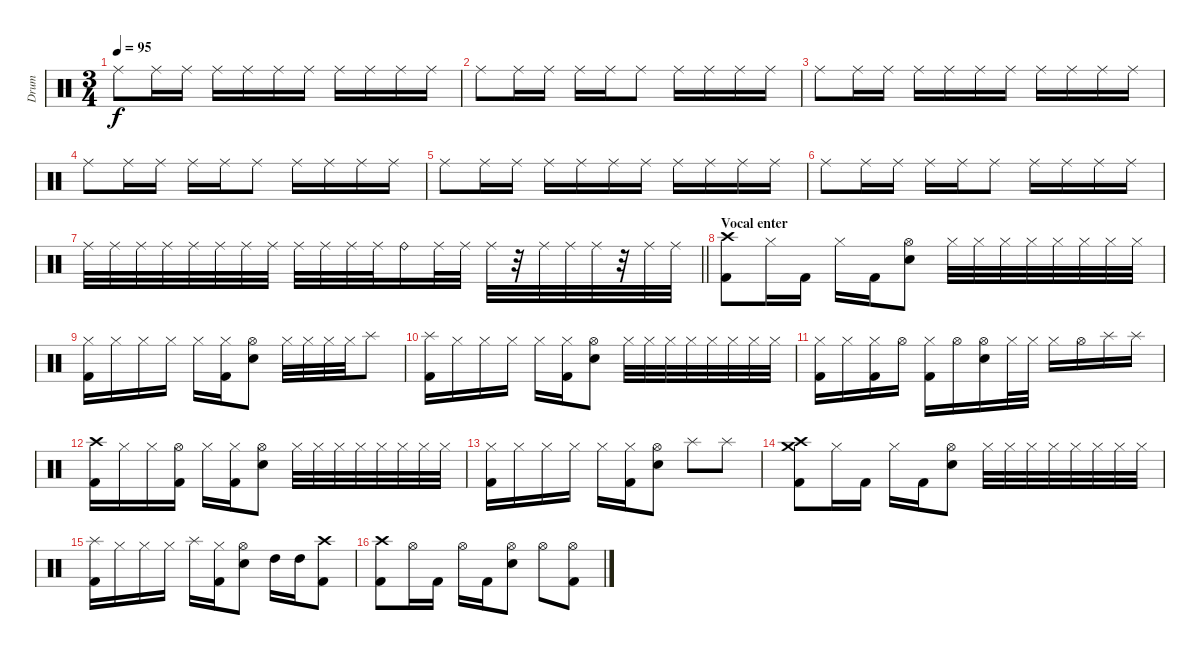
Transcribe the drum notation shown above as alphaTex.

\track ("Drum" "Drum") {instrument percussion}
\staff {score}
\articulation defaults
\ts (3 4)
\tempo 95
\clef neutral
\ks c "Ride (middle)".8{dy f} "Ride (middle)".16 "Ride (middle)".16 "Ride (middle)".16 "Ride (middle)".16 "Ride (middle)".16 "Ride (middle)".16 "Ride (middle)".16 "Ride (middle)".16 "Ride (middle)".16 "Ride (middle)".16
|
"Ride (middle)".8 "Ride (middle)".16 "Ride (middle)".16 "Ride (middle)".16 "Ride (middle)".16 "Ride (middle)".8 "Ride (middle)".16 "Ride (middle)".16 "Ride (middle)".16 "Ride (middle)".16 |
"Ride (middle)".8 "Ride (middle)".16 "Ride (middle)".16 "Ride (middle)".16 "Ride (middle)".16 "Ride (middle)".16 "Ride (middle)".16 "Ride (middle)".16 "Ride (middle)".16 "Ride (middle)".16 "Ride (middle)".16 |
"Ride (middle)".8 "Ride (middle)".16 "Ride (middle)".16 "Ride (middle)".16 "Ride (middle)".16 "Ride (middle)".8 "Ride (middle)".16 "Ride (middle)".16 "Ride (middle)".16 "Ride (middle)".16 |
"Ride (middle)".8 "Ride (middle)".16 "Ride (middle)".16 "Ride (middle)".16 "Ride (middle)".16 "Ride (middle)".16 "Ride (middle)".16 "Ride (middle)".16 "Ride (middle)".16 "Ride (middle)".16 "Ride (middle)".16 |
"Ride (middle)".8 "Ride (middle)".16 "Ride (middle)".16 "Ride (middle)".16 "Ride (middle)".16 "Ride (middle)".8 "Ride (middle)".16 "Ride (middle)".16 "Ride (middle)".16 "Ride (middle)".16 |
\barLineRight lightlight "Ride (middle)".32 "Ride (middle)".32 "Ride (middle)".32 "Ride (middle)".32 "Ride (middle)".32 "Ride (middle)".32 "Ride (middle)".32 "Ride (middle)".32 "Ride (middle)".32 "Ride (middle)".32 "Ride (middle)".32 "Ride (middle)".32 "Ride (bell)".16 "Ride (middle)".32 "Ride (middle)".32 "Ride (middle)".32
r.32 "Ride (middle)".32 "Ride (middle)".32 "Ride (middle)".32 r.32 "Ride (middle)".32 "Ride (middle)".32 |
\section ("" "Vocal enter")
("Crash high (hit)" "Kick (hit) 2").8 "Hi-Hat (closed)".16 "Kick (hit) 2".16 "Hi-Hat (closed)".16 "Kick (hit) 2".16 ("Hi-Hat (open)" "Electric Snare (hit)").8 "Hi-Hat (closed)".32 "Hi-Hat (closed)".32 "Hi-Hat (closed)".32 "Hi-Hat (closed)".32 "Hi-Hat (closed)".32 "Hi-Hat (closed)".32 "Hi-Hat (closed)".32 "Hi-Hat (closed)".32 |
("Hi-Hat (closed)" "Kick (hit) 2").16 "Hi-Hat (closed)".16 "Hi-Hat (closed)".16 "Hi-Hat (closed)".16 "Hi-Hat (closed)".16 ("Hi-Hat (closed)" "Kick (hit) 2").16 ("Hi-Hat (open)" "Electric Snare (hit)").8 "Hi-Hat (closed)".32 "Hi-Hat (closed)".32 "Hi-Hat (closed)".32 "Hi-Hat (closed)".32 "Splash (hit)".8 |
("Splash (hit)" "Kick (hit) 2").16 "Hi-Hat (closed)".16 "Hi-Hat (closed)".16 "Hi-Hat (closed)".16 "Hi-Hat (closed)".16 ("Hi-Hat (closed)" "Kick (hit) 2").16 ("Hi-Hat (open)" "Electric Snare (hit)").8 "Hi-Hat (closed)".32 "Hi-Hat (closed)".32 "Hi-Hat (closed)".32 "Hi-Hat (closed)".32 "Hi-Hat (closed)".32 "Hi-Hat (closed)".32 "Hi-Hat (closed)".32 "Hi-Hat (closed)".32 |
("Hi-Hat (closed)" "Kick (hit) 2").16 "Hi-Hat (closed)".16 ("Hi-Hat (closed)" "Kick (hit) 2").16 "Hi-Hat (open)".16 ("Hi-Hat (closed)" "Kick (hit) 2").16 "Hi-Hat (open)".16 ("Hi-Hat (open)" "Electric Snare (hit)").16 "Hi-Hat (closed)".32 "Hi-Hat (closed)".32 "Hi-Hat (closed)".16 "Hi-Hat (open)".16 "Splash (hit)".16 "Splash (hit)".16 |
("Crash high (hit)" "Kick (hit) 2").16 "Hi-Hat (closed)".16 "Hi-Hat (closed)".16 ("Hi-Hat (open)" "Kick (hit) 2").16 "Hi-Hat (closed)".16 ("Hi-Hat (closed)" "Kick (hit) 2").16 ("Hi-Hat (open)" "Electric Snare (hit)").8 "Hi-Hat (closed)".32 "Hi-Hat (closed)".32 "Hi-Hat (closed)".32 "Hi-Hat (closed)".32 "Hi-Hat (closed)".32 "Hi-Hat (closed)".32 "Hi-Hat (closed)".32 "Hi-Hat (closed)".32 |
("Hi-Hat (closed)" "Kick (hit) 2").16 "Hi-Hat (closed)".16 "Hi-Hat (closed)".16 "Hi-Hat (closed)".16 "Hi-Hat (closed)".16 ("Hi-Hat (closed)" "Kick (hit) 2").16 ("Hi-Hat (open)" "Electric Snare (hit)").8 "Splash (hit)".8 "Splash (hit)".8 |
("Crash medium (hit)" "Crash high (hit)" "Kick (hit) 2").8 "Hi-Hat (closed)".16 "Kick (hit) 2".16 "Hi-Hat (closed)".16 "Kick (hit) 2".16 ("Hi-Hat (open)" "Electric Snare (hit)").8 "Hi-Hat (closed)".32 "Hi-Hat (closed)".32 "Hi-Hat (closed)".32 "Hi-Hat (closed)".32 "Hi-Hat (closed)".32 "Hi-Hat (closed)".32 "Hi-Hat (closed)".32 "Hi-Hat (closed)".32 |
("Splash (hit)" "Kick (hit) 2").16 "Hi-Hat (closed)".16 "Hi-Hat (closed)".16 "Hi-Hat (closed)".16 "Splash (hit)".16 ("Hi-Hat (closed)" "Kick (hit) 2").16 ("Hi-Hat (open)" "Electric Snare (hit)").8 "High Tom (hit)".16 "High Tom (hit)".16 ("Crash high (hit)" "Kick (hit) 2").8 |
("Crash high (hit)" "Kick (hit) 2").8 "Hi-Hat (open)".16 "Kick (hit) 2".16 "Hi-Hat (open)".16 "Kick (hit) 2".16 ("Hi-Hat (open)" "Electric Snare (hit)").8 "Hi-Hat (open)".8 ("Hi-Hat (open)" "Kick (hit) 2").8
